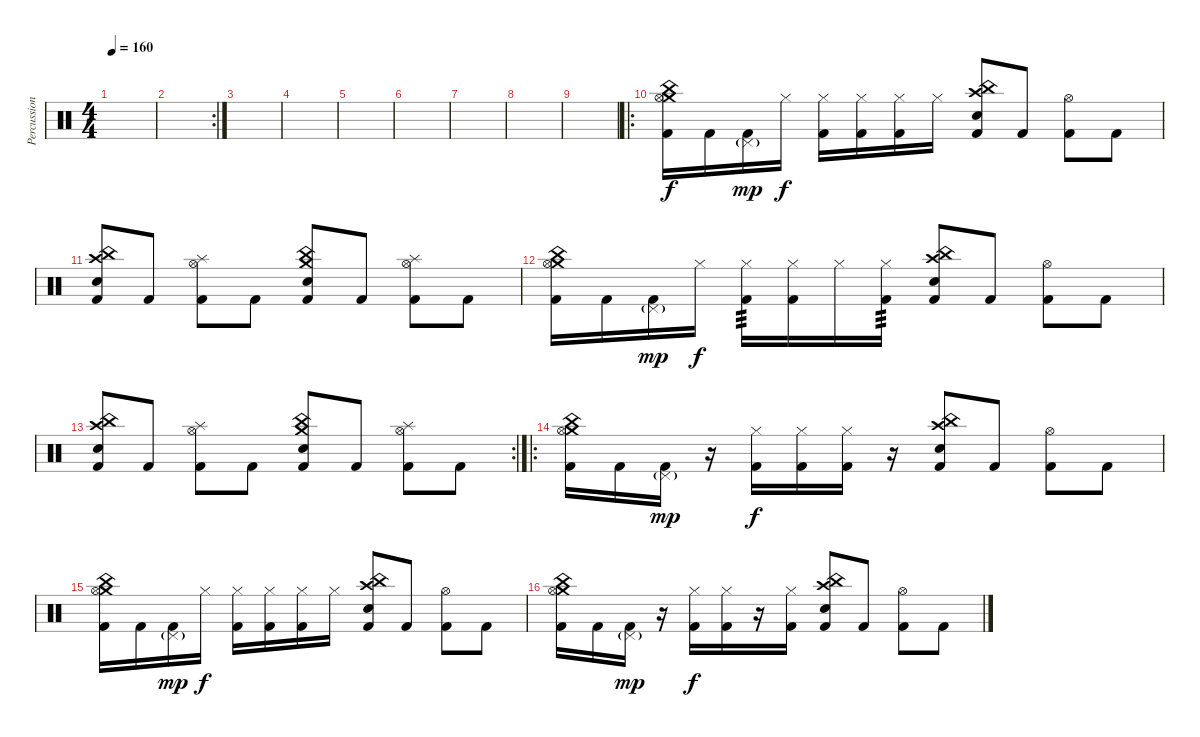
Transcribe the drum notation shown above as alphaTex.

\track ("Percussion" "Percussion") {instrument percussion}
\staff {score}
\articulation defaults
\ts (4 4)
\tempo 160
\clef neutral
\ks c
|
\rc 2
|
|
|
|
|
|
|
|
\ro
("Kick (hit) 2" "China (hit)" "Crash medium (hit)" "Hi-Hat (open)").16 "Kick (hit) 2".16 ("Kick (hit) 2" "Pedal Hi-Hat (hit)"{g}).16{dy mp} "Hi-Hat (closed)".16{dy f} ("Kick (hit) 2" "Hi-Hat (closed)").16 ("Kick (hit) 2" "Hi-Hat (closed)").16 ("Kick (hit) 2" "Hi-Hat (closed)").16 "Hi-Hat (closed)".16 ("Kick (hit) 2" "China (hit)" "Crash high (hit)" "Electric Snare (hit)").8 "Kick (hit) 2".8 ("Kick (hit) 2" "Hi-Hat (open)").8 "Kick (hit) 2".8 |
("Kick (hit) 2" "China (hit)" "Crash high (hit)" "Electric Snare (hit)").8 "Kick (hit) 2".8 ("Kick (hit) 2" "Hi-Hat (open)" "Splash (hit)").8 "Kick (hit) 2".8 ("Kick (hit) 2" "China (hit)" "Crash medium (hit)" "Electric Snare (hit)").8 "Kick (hit) 2".8 ("Kick (hit) 2" "Hi-Hat (open)" "Splash (hit)").8 "Kick (hit) 2".8 |
("Kick (hit) 2" "China (hit)" "Crash medium (hit)" "Hi-Hat (open)").16 "Kick (hit) 2".16 ("Kick (hit) 2" "Pedal Hi-Hat (hit)"{g}).16{dy mp} "Hi-Hat (closed)".16{dy f} ("Kick (hit) 2" "Hi-Hat (closed)").16{tp 3} ("Kick (hit) 2" "Hi-Hat (closed)").16 "Hi-Hat (closed)".16 ("Kick (hit) 2" "Hi-Hat (closed)").16{tp 3} ("Kick (hit) 2" "China (hit)" "Crash high (hit)" "Electric Snare (hit)").8 "Kick (hit) 2".8 ("Kick (hit) 2" "Hi-Hat (open)").8 "Kick (hit) 2".8 |
\rc 2
("Kick (hit) 2" "China (hit)" "Crash high (hit)" "Electric Snare (hit)").8 "Kick (hit) 2".8 ("Kick (hit) 2" "Hi-Hat (open)" "Splash (hit)").8 "Kick (hit) 2".8 ("Kick (hit) 2" "China (hit)" "Crash medium (hit)" "Electric Snare (hit)").8 "Kick (hit) 2".8 ("Kick (hit) 2" "Hi-Hat (open)" "Splash (hit)").8 "Kick (hit) 2".8 |
\ro
("Kick (hit) 2" "China (hit)" "Crash medium (hit)" "Hi-Hat (open)").16 "Kick (hit) 2".16 ("Kick (hit) 2" "Pedal Hi-Hat (hit)"{g}).16{dy mp} r.16 ("Kick (hit) 2" "Hi-Hat (closed)").16{dy f} ("Kick (hit) 2" "Hi-Hat (closed)").16 ("Kick (hit) 2" "Hi-Hat (closed)").16 r.16 ("Kick (hit) 2" "China (hit)" "Crash high (hit)" "Electric Snare (hit)").8 "Kick (hit) 2".8 ("Kick (hit) 2" "Hi-Hat (open)").8 "Kick (hit) 2".8 |
("Kick (hit) 2" "China (hit)" "Crash medium (hit)" "Hi-Hat (open)").16 "Kick (hit) 2".16 ("Kick (hit) 2" "Pedal Hi-Hat (hit)"{g}).16{dy mp} "Hi-Hat (closed)".16{dy f} ("Kick (hit) 2" "Hi-Hat (closed)").16 ("Kick (hit) 2" "Hi-Hat (closed)").16 ("Kick (hit) 2" "Hi-Hat (closed)").16 "Hi-Hat (closed)".16 ("Kick (hit) 2" "China (hit)" "Crash high (hit)" "Electric Snare (hit)").8 "Kick (hit) 2".8 ("Kick (hit) 2" "Hi-Hat (open)").8 "Kick (hit) 2".8 |
("Kick (hit) 2" "China (hit)" "Crash medium (hit)" "Hi-Hat (open)").16 "Kick (hit) 2".16 ("Kick (hit) 2" "Pedal Hi-Hat (hit)"{g}).16{dy mp} r.16 ("Kick (hit) 2" "Hi-Hat (closed)").16{dy f} ("Kick (hit) 2" "Hi-Hat (closed)").16 r.16 ("Kick (hit) 2" "Hi-Hat (closed)").16 ("Kick (hit) 2" "China (hit)" "Crash high (hit)" "Electric Snare (hit)").8 "Kick (hit) 2".8 ("Kick (hit) 2" "Hi-Hat (open)").8 "Kick (hit) 2".8
